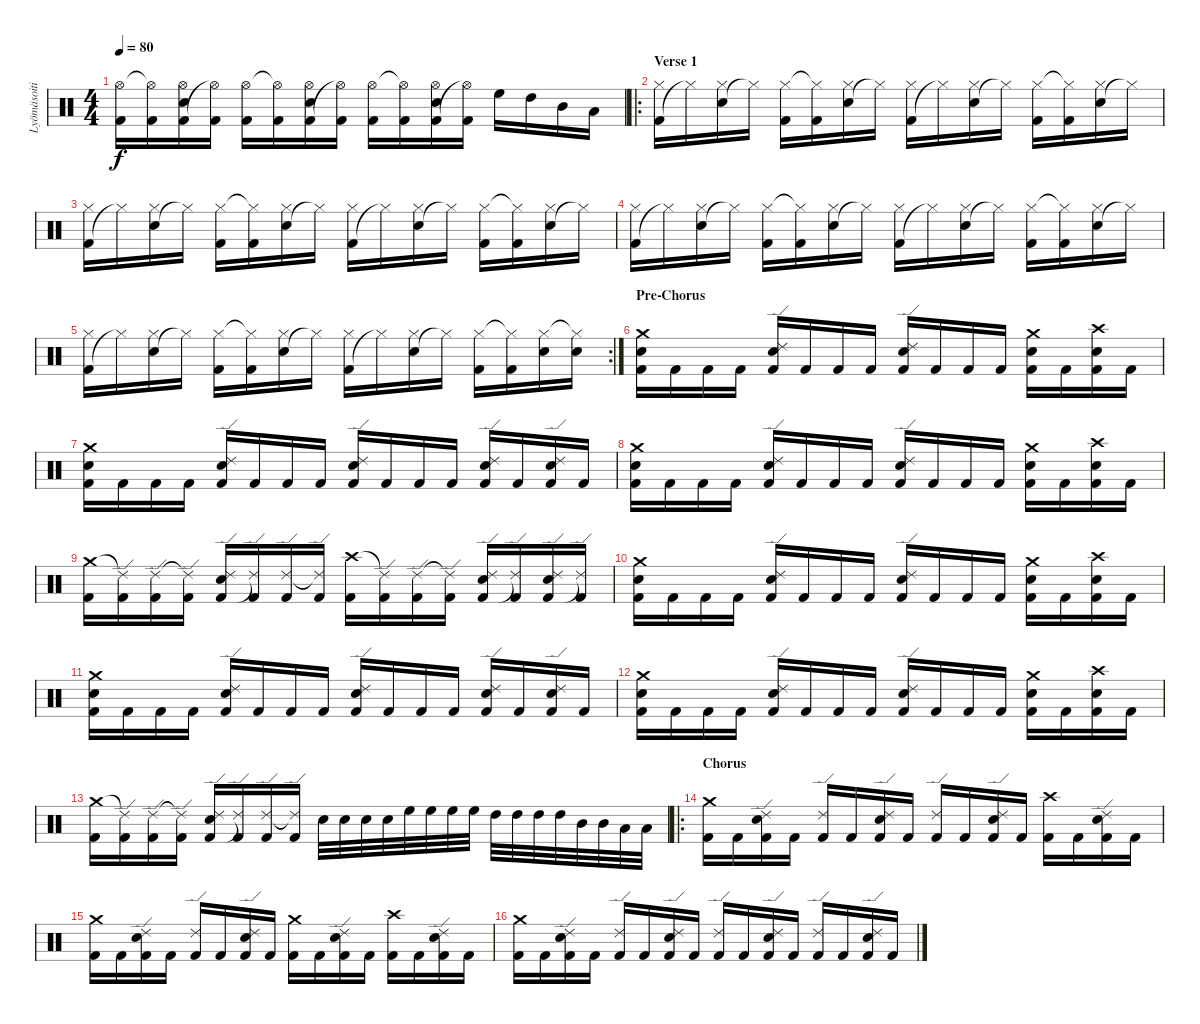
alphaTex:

\track ("Lyömäsoitin" "Lyömäsoiti") {instrument percussion}
\staff {score}
\articulation defaults
\ts (4 4)
\tempo 80
\clef neutral
\ks c
("Kick (hit) 2" "Hi-Hat (open)").16{dy f} ("Kick (hit) 2" "Hi-Hat (open)"{t}).16 ("Electric Snare (hit)" "Kick (hit) 2" "Hi-Hat (open)").16 ("Kick (hit) 2" "Hi-Hat (open)"{t}).16 ("Kick (hit) 2" "Hi-Hat (open)").16 ("Kick (hit) 2" "Hi-Hat (open)"{t}).16 ("Electric Snare (hit)" "Kick (hit) 2" "Hi-Hat (open)").16 ("Kick (hit) 2" "Hi-Hat (open)"{t}).16 ("Kick (hit) 2" "Hi-Hat (open)").16 ("Kick (hit) 2" "Hi-Hat (open)"{t}).16 ("Electric Snare (hit)" "Kick (hit) 2" "Hi-Hat (open)").16 ("Kick (hit) 2" "Hi-Hat (open)"{t}).16 "High Floor Tom (hit)".16 "High Tom (hit)".16 "Mid Tom (hit)".16 "Low Tom (hit)".16 |
\ro
\section ("" "Verse 1")
("Kick (hit) 2" "Hi-Hat (closed)").16 "Hi-Hat (closed)"{t}.16 ("Electric Snare (hit)" "Hi-Hat (closed)").16 "Hi-Hat (closed)"{t}.16 ("Kick (hit) 2" "Hi-Hat (closed)").16 ("Kick (hit) 2" "Hi-Hat (closed)"{t}).16 ("Electric Snare (hit)" "Hi-Hat (closed)").16 "Hi-Hat (closed)"{t}.16 ("Kick (hit) 2" "Hi-Hat (closed)").16 "Hi-Hat (closed)"{t}.16 ("Electric Snare (hit)" "Hi-Hat (closed)").16 "Hi-Hat (closed)"{t}.16 ("Kick (hit) 2" "Hi-Hat (closed)").16 ("Kick (hit) 2" "Hi-Hat (closed)"{t}).16 ("Electric Snare (hit)" "Hi-Hat (closed)").16 "Hi-Hat (closed)"{t}.16 |
("Kick (hit) 2" "Hi-Hat (closed)").16 "Hi-Hat (closed)"{t}.16 ("Electric Snare (hit)" "Hi-Hat (closed)").16 "Hi-Hat (closed)"{t}.16 ("Kick (hit) 2" "Hi-Hat (closed)").16 ("Kick (hit) 2" "Hi-Hat (closed)"{t}).16 ("Electric Snare (hit)" "Hi-Hat (closed)").16 "Hi-Hat (closed)"{t}.16 ("Kick (hit) 2" "Hi-Hat (closed)").16 "Hi-Hat (closed)"{t}.16 ("Electric Snare (hit)" "Hi-Hat (closed)").16 "Hi-Hat (closed)"{t}.16 ("Kick (hit) 2" "Hi-Hat (closed)").16 ("Kick (hit) 2" "Hi-Hat (closed)"{t}).16 ("Electric Snare (hit)" "Hi-Hat (closed)").16 "Hi-Hat (closed)"{t}.16 |
("Kick (hit) 2" "Hi-Hat (closed)").16 "Hi-Hat (closed)"{t}.16 ("Electric Snare (hit)" "Hi-Hat (closed)").16 "Hi-Hat (closed)"{t}.16 ("Kick (hit) 2" "Hi-Hat (closed)").16 ("Kick (hit) 2" "Hi-Hat (closed)"{t}).16 ("Electric Snare (hit)" "Hi-Hat (closed)").16 "Hi-Hat (closed)"{t}.16 ("Kick (hit) 2" "Hi-Hat (closed)").16 "Hi-Hat (closed)"{t}.16 ("Electric Snare (hit)" "Hi-Hat (closed)").16 "Hi-Hat (closed)"{t}.16 ("Kick (hit) 2" "Hi-Hat (closed)").16 ("Kick (hit) 2" "Hi-Hat (closed)"{t}).16 ("Electric Snare (hit)" "Hi-Hat (closed)").16 "Hi-Hat (closed)"{t}.16 |
\rc 2
("Kick (hit) 2" "Hi-Hat (closed)").16 "Hi-Hat (closed)"{t}.16 ("Electric Snare (hit)" "Hi-Hat (closed)").16 "Hi-Hat (closed)"{t}.16 ("Kick (hit) 2" "Hi-Hat (closed)").16 ("Kick (hit) 2" "Hi-Hat (closed)"{t}).16 ("Electric Snare (hit)" "Hi-Hat (closed)").16 "Hi-Hat (closed)"{t}.16 ("Kick (hit) 2" "Hi-Hat (closed)").16 "Hi-Hat (closed)"{t}.16 ("Electric Snare (hit)" "Hi-Hat (closed)").16 "Hi-Hat (closed)"{t}.16 ("Kick (hit) 2" "Hi-Hat (closed)").16 ("Kick (hit) 2" "Hi-Hat (closed)"{t}).16 ("Electric Snare (hit)" "Hi-Hat (closed)").16 ("Electric Snare (hit)" "Hi-Hat (closed)"{t}).16 |
\section ("" "Pre-Chorus")
("Electric Snare (hit)" "Kick (hit) 2" "Crash medium (hit)").16 "Kick (hit) 2".16 "Kick (hit) 2".16 "Kick (hit) 2".16 ("Electric Snare (hit)" "Kick (hit) 2" "Ride (edge) 2").16 "Kick (hit) 2".16 "Kick (hit) 2".16 "Kick (hit) 2".16 ("Electric Snare (hit)" "Kick (hit) 2" "Ride (edge) 2").16 "Kick (hit) 2".16 "Kick (hit) 2".16 "Kick (hit) 2".16 ("Electric Snare (hit)" "Kick (hit) 2" "Crash medium (hit)").16 "Kick (hit) 2".16 ("Electric Snare (hit)" "Kick (hit) 2" "Crash high (hit)").16 "Kick (hit) 2".16 |
("Electric Snare (hit)" "Kick (hit) 2" "Crash medium (hit)").16 "Kick (hit) 2".16 "Kick (hit) 2".16 "Kick (hit) 2".16 ("Electric Snare (hit)" "Kick (hit) 2" "Ride (edge) 2").16 "Kick (hit) 2".16 "Kick (hit) 2".16 "Kick (hit) 2".16 ("Electric Snare (hit)" "Kick (hit) 2" "Ride (edge) 2").16 "Kick (hit) 2".16 "Kick (hit) 2".16 "Kick (hit) 2".16 ("Electric Snare (hit)" "Kick (hit) 2" "Ride (edge) 2").16 "Kick (hit) 2".16 ("Electric Snare (hit)" "Kick (hit) 2" "Ride (edge) 2").16 "Kick (hit) 2".16 |
("Electric Snare (hit)" "Kick (hit) 2" "Crash medium (hit)").16 "Kick (hit) 2".16 "Kick (hit) 2".16 "Kick (hit) 2".16 ("Electric Snare (hit)" "Kick (hit) 2" "Ride (edge) 2").16 "Kick (hit) 2".16 "Kick (hit) 2".16 "Kick (hit) 2".16 ("Electric Snare (hit)" "Kick (hit) 2" "Ride (edge) 2").16 "Kick (hit) 2".16 "Kick (hit) 2".16 "Kick (hit) 2".16 ("Electric Snare (hit)" "Kick (hit) 2" "Crash medium (hit)").16 "Kick (hit) 2".16 ("Electric Snare (hit)" "Kick (hit) 2" "Crash high (hit)").16 "Kick (hit) 2".16 |
("Kick (hit) 2" "Crash medium (hit)").16 ("Kick (hit) 2" "Ride (edge) 2"{t}).16 ("Kick (hit) 2" "Ride (edge) 2").16 ("Kick (hit) 2" "Ride (edge) 2"{t}).16 ("Electric Snare (hit)" "Kick (hit) 2" "Ride (edge) 2").16 ("Kick (hit) 2" "Ride (edge) 2"{t}).16 ("Kick (hit) 2" "Ride (edge) 2").16 ("Kick (hit) 2" "Ride (edge) 2"{t}).16 ("Kick (hit) 2" "Crash high (hit)").16 ("Kick (hit) 2" "Ride (edge) 2"{t}).16 ("Kick (hit) 2" "Ride (edge) 2").16 ("Kick (hit) 2" "Ride (edge) 2"{t}).16 ("Electric Snare (hit)" "Kick (hit) 2" "Ride (edge) 2").16 ("Kick (hit) 2" "Ride (edge) 2"{t}).16 ("Electric Snare (hit)" "Kick (hit) 2" "Ride (edge) 2").16 ("Kick (hit) 2" "Ride (edge) 2"{t}).16 |
("Electric Snare (hit)" "Kick (hit) 2" "Crash medium (hit)").16 "Kick (hit) 2".16 "Kick (hit) 2".16 "Kick (hit) 2".16 ("Electric Snare (hit)" "Kick (hit) 2" "Ride (edge) 2").16 "Kick (hit) 2".16 "Kick (hit) 2".16 "Kick (hit) 2".16 ("Electric Snare (hit)" "Kick (hit) 2" "Ride (edge) 2").16 "Kick (hit) 2".16 "Kick (hit) 2".16 "Kick (hit) 2".16 ("Electric Snare (hit)" "Kick (hit) 2" "Crash medium (hit)").16 "Kick (hit) 2".16 ("Electric Snare (hit)" "Kick (hit) 2" "Crash high (hit)").16 "Kick (hit) 2".16 |
("Electric Snare (hit)" "Kick (hit) 2" "Crash medium (hit)").16 "Kick (hit) 2".16 "Kick (hit) 2".16 "Kick (hit) 2".16 ("Electric Snare (hit)" "Kick (hit) 2" "Ride (edge) 2").16 "Kick (hit) 2".16 "Kick (hit) 2".16 "Kick (hit) 2".16 ("Electric Snare (hit)" "Kick (hit) 2" "Ride (edge) 2").16 "Kick (hit) 2".16 "Kick (hit) 2".16 "Kick (hit) 2".16 ("Electric Snare (hit)" "Kick (hit) 2" "Ride (edge) 2").16 "Kick (hit) 2".16 ("Electric Snare (hit)" "Kick (hit) 2" "Ride (edge) 2").16 "Kick (hit) 2".16 |
("Electric Snare (hit)" "Kick (hit) 2" "Crash medium (hit)").16 "Kick (hit) 2".16 "Kick (hit) 2".16 "Kick (hit) 2".16 ("Electric Snare (hit)" "Kick (hit) 2" "Ride (edge) 2").16 "Kick (hit) 2".16 "Kick (hit) 2".16 "Kick (hit) 2".16 ("Electric Snare (hit)" "Kick (hit) 2" "Ride (edge) 2").16 "Kick (hit) 2".16 "Kick (hit) 2".16 "Kick (hit) 2".16 ("Electric Snare (hit)" "Kick (hit) 2" "Crash medium (hit)").16 "Kick (hit) 2".16 ("Electric Snare (hit)" "Kick (hit) 2" "Crash high (hit)").16 "Kick (hit) 2".16 |
("Kick (hit) 2" "Crash medium (hit)").16 ("Kick (hit) 2" "Ride (edge) 2"{t}).16 ("Kick (hit) 2" "Ride (edge) 2").16 ("Kick (hit) 2" "Ride (edge) 2"{t}).16 ("Electric Snare (hit)" "Kick (hit) 2" "Ride (edge) 2").16 ("Kick (hit) 2" "Ride (edge) 2"{t}).16 ("Kick (hit) 2" "Ride (edge) 2").16 ("Kick (hit) 2" "Ride (edge) 2"{t}).16 "Electric Snare (hit)".32 "Electric Snare (hit)".32 "Electric Snare (hit)".32 "Electric Snare (hit)".32 "High Floor Tom (hit)".32 "High Floor Tom (hit)".32 "High Floor Tom (hit)".32 "High Floor Tom (hit)".32 "High Tom (hit)".32 "High Tom (hit)".32 "High Tom (hit)".32 "High Tom (hit)".32 "Mid Tom (hit)".32 "Mid Tom (hit)".32 "Low Tom (hit)".32 "Low Tom (hit)".32 |
\ro
\section ("" "Chorus")
("Kick (hit) 2" "Crash medium (hit)").16 "Kick (hit) 2".16 ("Electric Snare (hit)" "Kick (hit) 2" "Ride (edge) 2").16 "Kick (hit) 2".16 ("Kick (hit) 2" "Ride (edge) 2").16 "Kick (hit) 2".16 ("Electric Snare (hit)" "Kick (hit) 2" "Ride (edge) 2").16 "Kick (hit) 2".16 ("Kick (hit) 2" "Ride (edge) 2").16 "Kick (hit) 2".16 ("Electric Snare (hit)" "Kick (hit) 2" "Ride (edge) 2").16 "Kick (hit) 2".16 ("Kick (hit) 2" "Crash high (hit)").16 "Kick (hit) 2".16 ("Electric Snare (hit)" "Kick (hit) 2" "Ride (edge) 2").16 "Kick (hit) 2".16 |
("Kick (hit) 2" "Crash medium (hit)").16 "Kick (hit) 2".16 ("Electric Snare (hit)" "Kick (hit) 2" "Ride (edge) 2").16 "Kick (hit) 2".16 ("Kick (hit) 2" "Ride (edge) 2").16 "Kick (hit) 2".16 ("Electric Snare (hit)" "Kick (hit) 2" "Ride (edge) 2").16 "Kick (hit) 2".16 ("Kick (hit) 2" "Crash medium (hit)").16 "Kick (hit) 2".16 ("Electric Snare (hit)" "Kick (hit) 2" "Ride (edge) 2").16 "Kick (hit) 2".16 ("Kick (hit) 2" "Crash high (hit)").16 "Kick (hit) 2".16 ("Electric Snare (hit)" "Kick (hit) 2" "Ride (edge) 2").16 "Kick (hit) 2".16 |
("Kick (hit) 2" "Crash medium (hit)").16 "Kick (hit) 2".16 ("Electric Snare (hit)" "Kick (hit) 2" "Ride (edge) 2").16 "Kick (hit) 2".16 ("Kick (hit) 2" "Ride (edge) 2").16 "Kick (hit) 2".16 ("Electric Snare (hit)" "Kick (hit) 2" "Ride (edge) 2").16 "Kick (hit) 2".16 ("Kick (hit) 2" "Ride (edge) 2").16 "Kick (hit) 2".16 ("Electric Snare (hit)" "Kick (hit) 2" "Ride (edge) 2").16 "Kick (hit) 2".16 ("Kick (hit) 2" "Ride (edge) 2").16 "Kick (hit) 2".16 ("Electric Snare (hit)" "Kick (hit) 2" "Ride (edge) 2").16 "Kick (hit) 2".16
